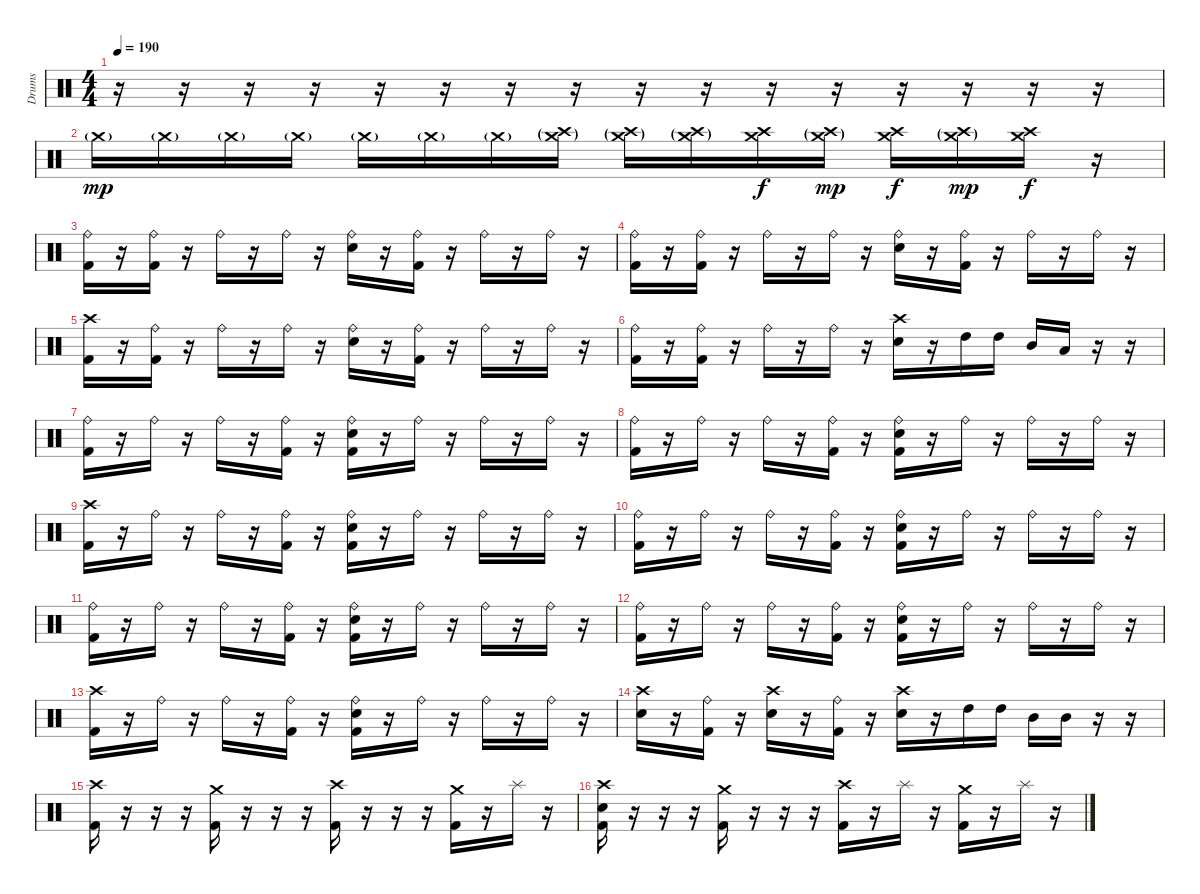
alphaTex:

\track ("Drums" "Drums") {instrument percussion}
\staff {score}
\articulation defaults
\ts (4 4)
\tempo 190
\clef neutral
\ks c
r.16{dy f} r.16 r.16 r.16 r.16 r.16 r.16 r.16 r.16 r.16 r.16 r.16 r.16 r.16 r.16 r.16 |
"Crash medium (hit)"{g}.16{dy mp} "Crash medium (hit)"{g}.16 "Crash medium (hit)"{g}.16 "Crash medium (hit)"{g}.16 "Crash medium (hit)"{g}.16 "Crash medium (hit)"{g}.16 "Crash medium (hit)"{g}.16 ("Crash medium (hit)"{g} "Crash high (hit)"{g}).16 ("Crash medium (hit)"{g} "Crash high (hit)"{g}).16 ("Crash medium (hit)"{g} "Crash high (hit)"{g}).16 ("Crash medium (hit)" "Crash high (hit)").16{dy f} ("Crash medium (hit)"{g} "Crash high (hit)"{g}).16{dy mp} ("Crash medium (hit)" "Crash high (hit)").16{dy f} ("Crash medium (hit)"{g} "Crash high (hit)"{g}).16{dy mp} ("Crash medium (hit)" "Crash high (hit)").16{dy f} r.16 |
("Ride (bell)" "Kick (hit) 2").16 r.16 ("Ride (bell)" "Kick (hit) 2").16 r.16 "Ride (bell)".16 r.16 "Ride (bell)".16 r.16 ("Ride (bell)" "Electric Snare (hit)").16 r.16 ("Ride (bell)" "Kick (hit) 2").16 r.16 "Ride (bell)".16 r.16 "Ride (bell)".16 r.16 |
("Ride (bell)" "Kick (hit) 2").16 r.16 ("Ride (bell)" "Kick (hit) 2").16 r.16 "Ride (bell)".16 r.16 "Ride (bell)".16 r.16 ("Ride (bell)" "Electric Snare (hit)").16 r.16 ("Ride (bell)" "Kick (hit) 2").16 r.16 "Ride (bell)".16 r.16 "Ride (bell)".16 r.16 |
("Crash high (hit)" "Kick (hit) 2").16 r.16 ("Ride (bell)" "Kick (hit) 2").16 r.16 "Ride (bell)".16 r.16 "Ride (bell)".16 r.16 ("Ride (bell)" "Electric Snare (hit)").16 r.16 ("Ride (bell)" "Kick (hit) 2").16 r.16 "Ride (bell)".16 r.16 "Ride (bell)".16 r.16 |
("Ride (bell)" "Kick (hit) 2").16 r.16 ("Ride (bell)" "Kick (hit) 2").16 r.16 "Ride (bell)".16 r.16 "Ride (bell)".16 r.16 ("Crash high (hit)" "Electric Snare (hit)").16 r.16 "High Tom (hit)".16 "High Tom (hit)".16 "Mid Tom (hit)".16 "Low Tom (hit)".16 r.16 r.16 |
("Ride (bell)" "Kick (hit) 2").16 r.16 "Ride (bell)".16 r.16 "Ride (bell)".16 r.16 ("Ride (bell)" "Kick (hit) 2").16 r.16 ("Ride (bell)" "Electric Snare (hit)" "Kick (hit) 2").16 r.16 "Ride (bell)".16 r.16 "Ride (bell)".16 r.16 "Ride (bell)".16 r.16 |
("Ride (bell)" "Kick (hit) 2").16 r.16 "Ride (bell)".16 r.16 "Ride (bell)".16 r.16 ("Ride (bell)" "Kick (hit) 2").16 r.16 ("Ride (bell)" "Electric Snare (hit)" "Kick (hit) 2").16 r.16 "Ride (bell)".16 r.16 "Ride (bell)".16 r.16 "Ride (bell)".16 r.16 |
("Crash high (hit)" "Kick (hit) 2").16 r.16 "Ride (bell)".16 r.16 "Ride (bell)".16 r.16 ("Ride (bell)" "Kick (hit) 2").16 r.16 ("Ride (bell)" "Electric Snare (hit)" "Kick (hit) 2").16 r.16 "Ride (bell)".16 r.16 "Ride (bell)".16 r.16 "Ride (bell)".16 r.16 |
("Ride (bell)" "Kick (hit) 2").16 r.16 "Ride (bell)".16 r.16 "Ride (bell)".16 r.16 ("Ride (bell)" "Kick (hit) 2").16 r.16 ("Ride (bell)" "Electric Snare (hit)" "Kick (hit) 2").16 r.16 "Ride (bell)".16 r.16 "Ride (bell)".16 r.16 "Ride (bell)".16 r.16 |
("Ride (bell)" "Kick (hit) 2").16 r.16 "Ride (bell)".16 r.16 "Ride (bell)".16 r.16 ("Ride (bell)" "Kick (hit) 2").16 r.16 ("Ride (bell)" "Electric Snare (hit)" "Kick (hit) 2").16 r.16 "Ride (bell)".16 r.16 "Ride (bell)".16 r.16 "Ride (bell)".16 r.16 |
("Ride (bell)" "Kick (hit) 2").16 r.16 "Ride (bell)".16 r.16 "Ride (bell)".16 r.16 ("Ride (bell)" "Kick (hit) 2").16 r.16 ("Ride (bell)" "Electric Snare (hit)" "Kick (hit) 2").16 r.16 "Ride (bell)".16 r.16 "Ride (bell)".16 r.16 "Ride (bell)".16 r.16 |
("Crash high (hit)" "Kick (hit) 2").16 r.16 "Ride (bell)".16 r.16 "Ride (bell)".16 r.16 ("Ride (bell)" "Kick (hit) 2").16 r.16 ("Ride (bell)" "Electric Snare (hit)" "Kick (hit) 2").16 r.16 "Ride (bell)".16 r.16 "Ride (bell)".16 r.16 "Ride (bell)".16 r.16 |
("Crash high (hit)" "Electric Snare (hit)").16 r.16 ("Ride (bell)" "Kick (hit) 2").16 r.16 ("Crash high (hit)" "Electric Snare (hit)").16 r.16 ("Ride (bell)" "Kick (hit) 2").16 r.16 ("Crash high (hit)" "Electric Snare (hit)").16 r.16 "High Tom (hit)".16 "High Tom (hit)".16 "Mid Tom (hit)".16 "Mid Tom (hit)".16 r.16 r.16 |
("Crash high (hit)" "Kick (hit) 2").16 r.16 r.16 r.16 ("Crash medium (hit)" "Kick (hit) 2").16 r.16 r.16 r.16 ("Crash high (hit)" "Kick (hit) 2").16 r.16 r.16 r.16 ("Crash medium (hit)" "Kick (hit) 2").16 r.16 "Splash (hit)".16 r.16 |
("Crash high (hit)" "Electric Snare (hit)" "Kick (hit) 2").16 r.16 r.16 r.16 ("Crash medium (hit)" "Kick (hit) 2").16 r.16 r.16 r.16 ("Crash high (hit)" "Kick (hit) 2").16 r.16 "Splash (hit)".16 r.16 ("Crash medium (hit)" "Kick (hit) 2").16 r.16 "Splash (hit)".16 r.16
